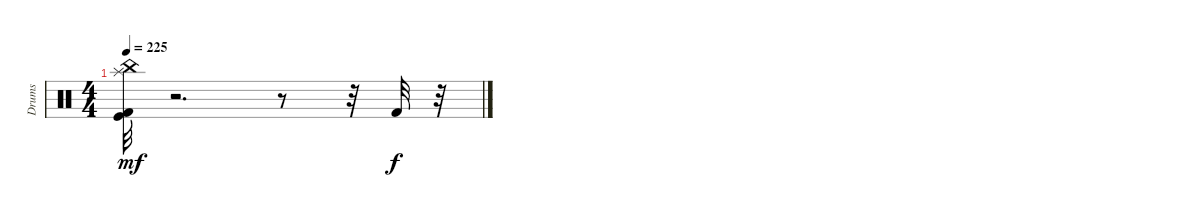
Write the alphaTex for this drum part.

\track ("Drums" "Drums") {instrument percussion}
\staff {score}
\articulation defaults
\ts (4 4)
\tempo 225
\clef neutral
\ks c
("Kick (hit) 2" "Kick (hit)" "China (hit)" "Splash (hit)").32{dy mf} r.2{d} r.8 r.32 "Kick (hit) 2".32{dy f} r.32
